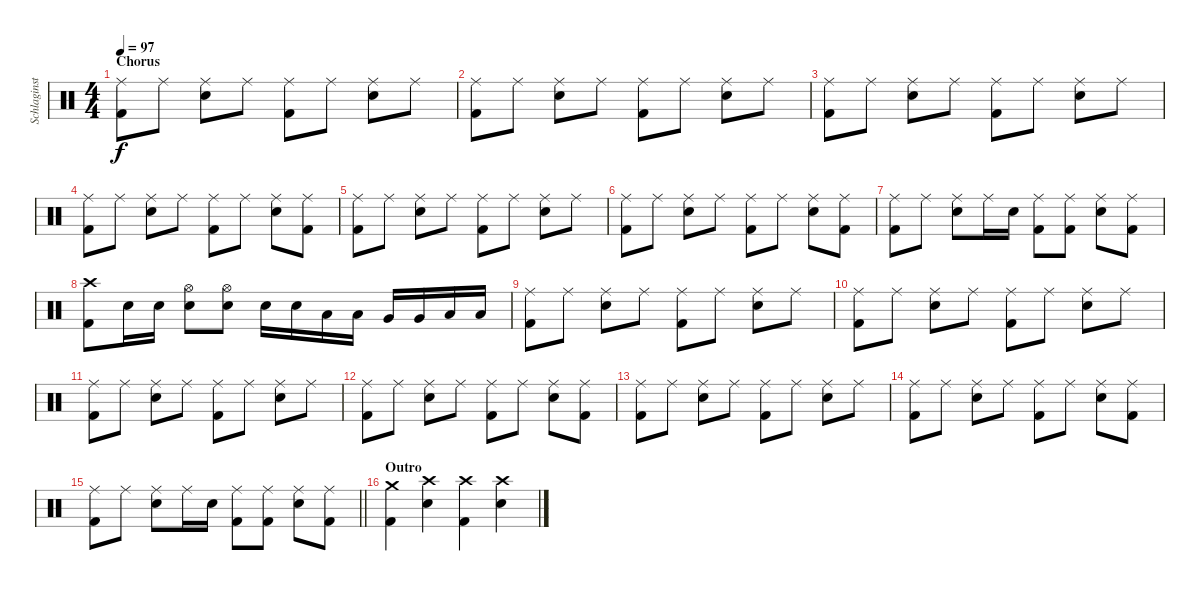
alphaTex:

\track ("Schlaginstrumente - Auswahl" "Schlaginst") {instrument percussion}
\staff {score}
\articulation defaults
\ts (4 4)
\section ("" "Chorus")
\tempo 97
\clef neutral
\ks c
("Ride (middle)" "Kick (hit) 2").8{dy f} "Ride (middle)".8 ("Ride (middle)" "Electric Snare (hit)").8 "Ride (middle)".8 ("Ride (middle)" "Kick (hit) 2").8 "Ride (middle)".8 ("Ride (middle)" "Electric Snare (hit)").8 "Ride (middle)".8 |
("Ride (middle)" "Kick (hit) 2").8 "Ride (middle)".8 ("Ride (middle)" "Electric Snare (hit)").8 "Ride (middle)".8 ("Ride (middle)" "Kick (hit) 2").8 "Ride (middle)".8 ("Ride (middle)" "Electric Snare (hit)").8 "Ride (middle)".8 |
("Ride (middle)" "Kick (hit) 2").8 "Ride (middle)".8 ("Ride (middle)" "Electric Snare (hit)").8 "Ride (middle)".8 ("Ride (middle)" "Kick (hit) 2").8 "Ride (middle)".8 ("Ride (middle)" "Electric Snare (hit)").8 "Ride (middle)".8 |
("Ride (middle)" "Kick (hit) 2").8 "Ride (middle)".8 ("Ride (middle)" "Electric Snare (hit)").8 "Ride (middle)".8 ("Ride (middle)" "Kick (hit) 2").8 "Ride (middle)".8 ("Ride (middle)" "Electric Snare (hit)").8 ("Ride (middle)" "Kick (hit) 2").8 |
("Ride (middle)" "Kick (hit) 2").8 "Ride (middle)".8 ("Ride (middle)" "Electric Snare (hit)").8 "Ride (middle)".8 ("Ride (middle)" "Kick (hit) 2").8 "Ride (middle)".8 ("Ride (middle)" "Electric Snare (hit)").8 "Ride (middle)".8 |
("Ride (middle)" "Kick (hit) 2").8 "Ride (middle)".8 ("Ride (middle)" "Electric Snare (hit)").8 "Ride (middle)".8 ("Ride (middle)" "Kick (hit) 2").8 "Ride (middle)".8 ("Ride (middle)" "Electric Snare (hit)").8 ("Ride (middle)" "Kick (hit) 2").8 |
("Ride (middle)" "Kick (hit) 2").8 "Ride (middle)".8 ("Ride (middle)" "Electric Snare (hit)").8 "Ride (middle)".16 "Electric Snare (hit)".16 ("Ride (middle)" "Kick (hit) 2").8 ("Ride (middle)" "Kick (hit) 2").8 ("Ride (middle)" "Electric Snare (hit)").8 ("Ride (middle)" "Kick (hit) 2").8 |
("Crash high (hit)" "Kick (hit) 2").8 "Electric Snare (hit)".16 "Electric Snare (hit)".16 ("Hi-Hat (open)" "Electric Snare (hit)").8 ("Hi-Hat (open)" "Electric Snare (hit)").8 "Electric Snare (hit)".16 "Electric Snare (hit)".16 "Low Tom (hit)".16 "Low Tom (hit)".16 "Very Low Tom (hit)".16 "Very Low Tom (hit)".16 "Low Floor Tom (hit)".16 "Low Floor Tom (hit)".16 |
("Ride (middle)" "Kick (hit) 2").8 "Ride (middle)".8 ("Ride (middle)" "Electric Snare (hit)").8 "Ride (middle)".8 ("Ride (middle)" "Kick (hit) 2").8 "Ride (middle)".8 ("Ride (middle)" "Electric Snare (hit)").8 "Ride (middle)".8 |
("Ride (middle)" "Kick (hit) 2").8 "Ride (middle)".8 ("Ride (middle)" "Electric Snare (hit)").8 "Ride (middle)".8 ("Ride (middle)" "Kick (hit) 2").8 "Ride (middle)".8 ("Ride (middle)" "Electric Snare (hit)").8 "Ride (middle)".8 |
("Ride (middle)" "Kick (hit) 2").8 "Ride (middle)".8 ("Ride (middle)" "Electric Snare (hit)").8 "Ride (middle)".8 ("Ride (middle)" "Kick (hit) 2").8 "Ride (middle)".8 ("Ride (middle)" "Electric Snare (hit)").8 "Ride (middle)".8 |
("Ride (middle)" "Kick (hit) 2").8 "Ride (middle)".8 ("Ride (middle)" "Electric Snare (hit)").8 "Ride (middle)".8 ("Ride (middle)" "Kick (hit) 2").8 "Ride (middle)".8 ("Ride (middle)" "Electric Snare (hit)").8 ("Ride (middle)" "Kick (hit) 2").8 |
("Ride (middle)" "Kick (hit) 2").8 "Ride (middle)".8 ("Ride (middle)" "Electric Snare (hit)").8 "Ride (middle)".8 ("Ride (middle)" "Kick (hit) 2").8 "Ride (middle)".8 ("Ride (middle)" "Electric Snare (hit)").8 "Ride (middle)".8 |
("Ride (middle)" "Kick (hit) 2").8 "Ride (middle)".8 ("Ride (middle)" "Electric Snare (hit)").8 "Ride (middle)".8 ("Ride (middle)" "Kick (hit) 2").8 "Ride (middle)".8 ("Ride (middle)" "Electric Snare (hit)").8 ("Ride (middle)" "Kick (hit) 2").8 |
\barLineRight lightlight
("Ride (middle)" "Kick (hit) 2").8 "Ride (middle)".8 ("Ride (middle)" "Electric Snare (hit)").8 "Ride (middle)".16 "Electric Snare (hit)".16 ("Ride (middle)" "Kick (hit) 2").8 ("Ride (middle)" "Kick (hit) 2").8 ("Ride (middle)" "Electric Snare (hit)").8 ("Ride (middle)" "Kick (hit) 2").8 |
\section ("" "Outro")
("Crash medium (hit)" "Kick (hit) 2").4 ("Crash high (hit)" "Electric Snare (hit)").4 ("Crash high (hit)" "Kick (hit) 2").4 ("Crash high (hit)" "Electric Snare (hit)").4
